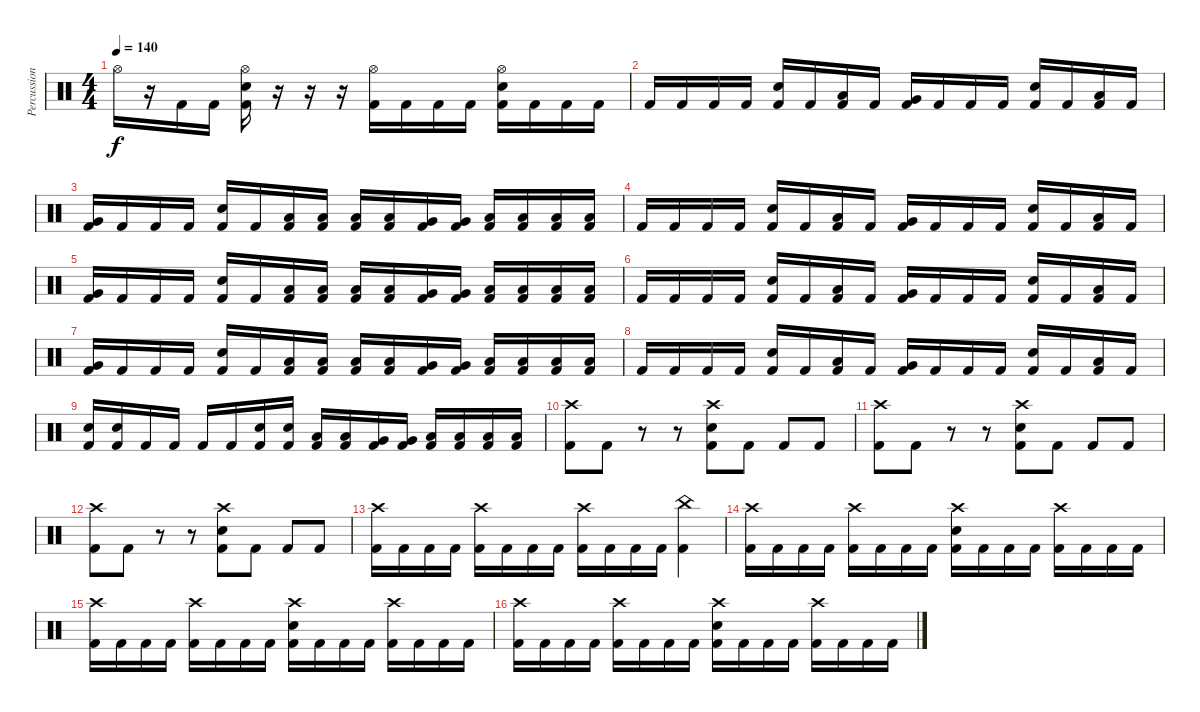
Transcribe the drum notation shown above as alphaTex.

\track ("Percussion" "Percussion") {instrument percussion}
\staff {score}
\articulation defaults
\ts (4 4)
\tempo 140
\clef neutral
\ks c "Hi-Hat (open)".16{dy f}
r.16 "Kick (hit) 2".16 "Kick (hit) 2".16 ("Hi-Hat (open)" "Electric Snare (hit)" "Kick (hit) 2").16 r.16 r.16 r.16 ("Hi-Hat (open)" "Kick (hit) 2").16 "Kick (hit) 2".16 "Kick (hit) 2".16 "Kick (hit) 2".16 ("Hi-Hat (open)" "Electric Snare (hit)" "Kick (hit) 2").16 "Kick (hit) 2".16 "Kick (hit) 2".16 "Kick (hit) 2".16 |
"Kick (hit) 2".16 "Kick (hit) 2".16 "Kick (hit) 2".16 "Kick (hit) 2".16 ("Electric Snare (hit)" "Kick (hit) 2").16 "Kick (hit) 2".16 ("Low Tom (hit)" "Kick (hit) 2").16 "Kick (hit) 2".16 ("Very Low Tom (hit)" "Kick (hit) 2").16 "Kick (hit) 2".16 "Kick (hit) 2".16 "Kick (hit) 2".16 ("Electric Snare (hit)" "Kick (hit) 2").16 "Kick (hit) 2".16 ("Low Tom (hit)" "Kick (hit) 2").16 "Kick (hit) 2".16 |
("Very Low Tom (hit)" "Kick (hit) 2").16 "Kick (hit) 2".16 "Kick (hit) 2".16 "Kick (hit) 2".16 ("Electric Snare (hit)" "Kick (hit) 2").16 "Kick (hit) 2".16 ("Low Tom (hit)" "Kick (hit) 2").16 ("Low Tom (hit)" "Kick (hit) 2").16 ("Low Tom (hit)" "Kick (hit) 2").16 ("Low Tom (hit)" "Kick (hit) 2").16 ("Very Low Tom (hit)" "Kick (hit) 2").16 ("Very Low Tom (hit)" "Kick (hit) 2").16 ("Low Floor Tom (hit)" "Kick (hit) 2").16 ("Low Floor Tom (hit)" "Kick (hit) 2").16 ("Low Floor Tom (hit)" "Kick (hit) 2").16 ("Low Floor Tom (hit)" "Kick (hit) 2").16 |
"Kick (hit) 2".16 "Kick (hit) 2".16 "Kick (hit) 2".16 "Kick (hit) 2".16 ("Electric Snare (hit)" "Kick (hit) 2").16 "Kick (hit) 2".16 ("Low Tom (hit)" "Kick (hit) 2").16 "Kick (hit) 2".16 ("Very Low Tom (hit)" "Kick (hit) 2").16 "Kick (hit) 2".16 "Kick (hit) 2".16 "Kick (hit) 2".16 ("Electric Snare (hit)" "Kick (hit) 2").16 "Kick (hit) 2".16 ("Low Tom (hit)" "Kick (hit) 2").16 "Kick (hit) 2".16 |
("Very Low Tom (hit)" "Kick (hit) 2").16 "Kick (hit) 2".16 "Kick (hit) 2".16 "Kick (hit) 2".16 ("Electric Snare (hit)" "Kick (hit) 2").16 "Kick (hit) 2".16 ("Low Tom (hit)" "Kick (hit) 2").16 ("Low Tom (hit)" "Kick (hit) 2").16 ("Low Tom (hit)" "Kick (hit) 2").16 ("Low Tom (hit)" "Kick (hit) 2").16 ("Very Low Tom (hit)" "Kick (hit) 2").16 ("Very Low Tom (hit)" "Kick (hit) 2").16 ("Low Floor Tom (hit)" "Kick (hit) 2").16 ("Low Floor Tom (hit)" "Kick (hit) 2").16 ("Low Floor Tom (hit)" "Kick (hit) 2").16 ("Low Floor Tom (hit)" "Kick (hit) 2").16 |
"Kick (hit) 2".16 "Kick (hit) 2".16 "Kick (hit) 2".16 "Kick (hit) 2".16 ("Electric Snare (hit)" "Kick (hit) 2").16 "Kick (hit) 2".16 ("Low Tom (hit)" "Kick (hit) 2").16 "Kick (hit) 2".16 ("Very Low Tom (hit)" "Kick (hit) 2").16 "Kick (hit) 2".16 "Kick (hit) 2".16 "Kick (hit) 2".16 ("Electric Snare (hit)" "Kick (hit) 2").16 "Kick (hit) 2".16 ("Low Tom (hit)" "Kick (hit) 2").16 "Kick (hit) 2".16 |
("Very Low Tom (hit)" "Kick (hit) 2").16 "Kick (hit) 2".16 "Kick (hit) 2".16 "Kick (hit) 2".16 ("Electric Snare (hit)" "Kick (hit) 2").16 "Kick (hit) 2".16 ("Low Tom (hit)" "Kick (hit) 2").16 ("Low Tom (hit)" "Kick (hit) 2").16 ("Low Tom (hit)" "Kick (hit) 2").16 ("Low Tom (hit)" "Kick (hit) 2").16 ("Very Low Tom (hit)" "Kick (hit) 2").16 ("Very Low Tom (hit)" "Kick (hit) 2").16 ("Low Floor Tom (hit)" "Kick (hit) 2").16 ("Low Floor Tom (hit)" "Kick (hit) 2").16 ("Low Floor Tom (hit)" "Kick (hit) 2").16 ("Low Floor Tom (hit)" "Kick (hit) 2").16 |
"Kick (hit) 2".16 "Kick (hit) 2".16 "Kick (hit) 2".16 "Kick (hit) 2".16 ("Electric Snare (hit)" "Kick (hit) 2").16 "Kick (hit) 2".16 ("Low Tom (hit)" "Kick (hit) 2").16 "Kick (hit) 2".16 ("Very Low Tom (hit)" "Kick (hit) 2").16 "Kick (hit) 2".16 "Kick (hit) 2".16 "Kick (hit) 2".16 ("Electric Snare (hit)" "Kick (hit) 2").16 "Kick (hit) 2".16 ("Low Tom (hit)" "Kick (hit) 2").16 "Kick (hit) 2".16 |
("Electric Snare (hit)" "Kick (hit) 2").16 ("Electric Snare (hit)" "Kick (hit) 2").16 "Kick (hit) 2".16 "Kick (hit) 2".16 "Kick (hit) 2".16 "Kick (hit) 2".16 ("Electric Snare (hit)" "Kick (hit) 2").16 ("Electric Snare (hit)" "Kick (hit) 2").16 ("Low Tom (hit)" "Kick (hit) 2").16 ("Low Tom (hit)" "Kick (hit) 2").16 ("Very Low Tom (hit)" "Kick (hit) 2").16 ("Very Low Tom (hit)" "Kick (hit) 2").16 ("Low Floor Tom (hit)" "Kick (hit) 2").16 ("Low Floor Tom (hit)" "Kick (hit) 2").16 ("Low Floor Tom (hit)" "Kick (hit) 2").16 ("Low Floor Tom (hit)" "Kick (hit) 2").16 |
("Crash high (hit)" "Kick (hit) 2").8 "Kick (hit) 2".8 r.8 r.8 ("Crash high (hit)" "Electric Snare (hit)" "Kick (hit) 2").8 "Kick (hit) 2".8 "Kick (hit) 2".8 "Kick (hit) 2".8 |
("Crash high (hit)" "Kick (hit) 2").8 "Kick (hit) 2".8 r.8 r.8 ("Crash high (hit)" "Electric Snare (hit)" "Kick (hit) 2").8 "Kick (hit) 2".8 "Kick (hit) 2".8 "Kick (hit) 2".8 |
("Crash high (hit)" "Kick (hit) 2").8 "Kick (hit) 2".8 r.8 r.8 ("Crash high (hit)" "Electric Snare (hit)" "Kick (hit) 2").8 "Kick (hit) 2".8 "Kick (hit) 2".8 "Kick (hit) 2".8 |
("Crash high (hit)" "Kick (hit) 2").16 "Kick (hit) 2".16 "Kick (hit) 2".16 "Kick (hit) 2".16 ("Crash high (hit)" "Kick (hit) 2").16 "Kick (hit) 2".16 "Kick (hit) 2".16 "Kick (hit) 2".16 ("Crash high (hit)" "Kick (hit) 2").16 "Kick (hit) 2".16 "Kick (hit) 2".16 "Kick (hit) 2".16 ("China (hit)" "Kick (hit) 2").4 |
("Crash high (hit)" "Kick (hit) 2").16 "Kick (hit) 2".16 "Kick (hit) 2".16 "Kick (hit) 2".16 ("Crash high (hit)" "Kick (hit) 2").16 "Kick (hit) 2".16 "Kick (hit) 2".16 "Kick (hit) 2".16 ("Crash high (hit)" "Electric Snare (hit)" "Kick (hit) 2").16 "Kick (hit) 2".16 "Kick (hit) 2".16 "Kick (hit) 2".16 ("Crash high (hit)" "Kick (hit) 2").16 "Kick (hit) 2".16 "Kick (hit) 2".16 "Kick (hit) 2".16 |
("Crash high (hit)" "Kick (hit) 2").16 "Kick (hit) 2".16 "Kick (hit) 2".16 "Kick (hit) 2".16 ("Crash high (hit)" "Kick (hit) 2").16 "Kick (hit) 2".16 "Kick (hit) 2".16 "Kick (hit) 2".16 ("Crash high (hit)" "Electric Snare (hit)" "Kick (hit) 2").16 "Kick (hit) 2".16 "Kick (hit) 2".16 "Kick (hit) 2".16 ("Crash high (hit)" "Kick (hit) 2").16 "Kick (hit) 2".16 "Kick (hit) 2".16 "Kick (hit) 2".16 |
("Crash high (hit)" "Kick (hit) 2").16 "Kick (hit) 2".16 "Kick (hit) 2".16 "Kick (hit) 2".16 ("Crash high (hit)" "Kick (hit) 2").16 "Kick (hit) 2".16 "Kick (hit) 2".16 "Kick (hit) 2".16 ("Crash high (hit)" "Electric Snare (hit)" "Kick (hit) 2").16 "Kick (hit) 2".16 "Kick (hit) 2".16 "Kick (hit) 2".16 ("Crash high (hit)" "Kick (hit) 2").16 "Kick (hit) 2".16 "Kick (hit) 2".16 "Kick (hit) 2".16
